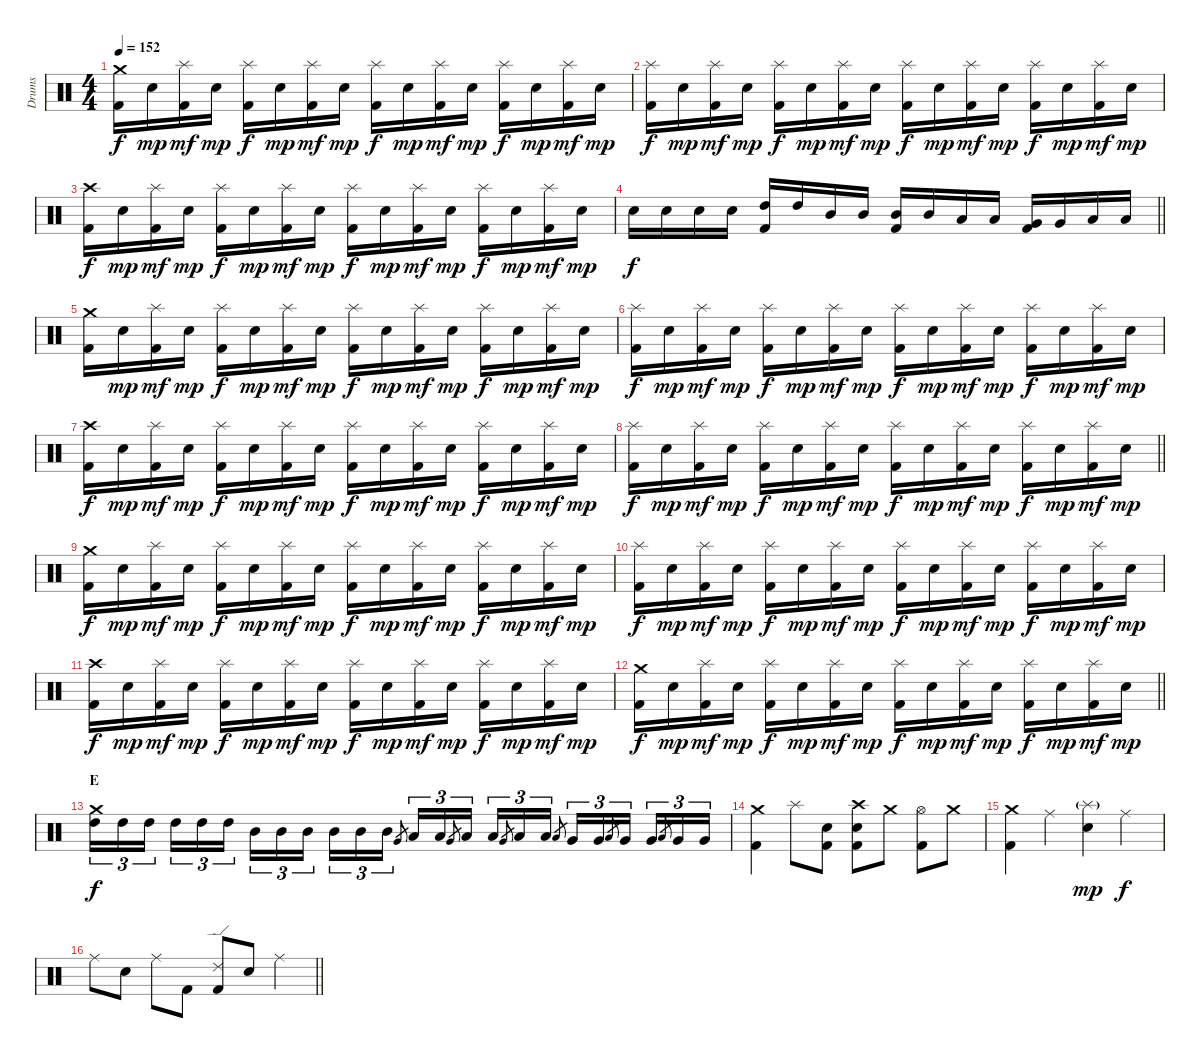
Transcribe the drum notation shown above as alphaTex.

\track ("Drums" "Drums") {instrument percussion}
\staff {score}
\articulation defaults
\ts (4 4)
\section ("" "")
\tempo 152
\clef neutral
\ks c
("Crash medium (hit)" "Kick (hit) 2").16{dy f} "Electric Snare (hit)".16{dy mp} ("Splash (hit)" "Kick (hit) 2").16{dy mf} "Electric Snare (hit)".16{dy mp} ("Splash (hit)" "Kick (hit) 2").16{dy f} "Electric Snare (hit)".16{dy mp} ("Splash (hit)" "Kick (hit) 2").16{dy mf} "Electric Snare (hit)".16{dy mp} ("Splash (hit)" "Kick (hit) 2").16{dy f} "Electric Snare (hit)".16{dy mp} ("Splash (hit)" "Kick (hit) 2").16{dy mf} "Electric Snare (hit)".16{dy mp} ("Splash (hit)" "Kick (hit) 2").16{dy f} "Electric Snare (hit)".16{dy mp} ("Splash (hit)" "Kick (hit) 2").16{dy mf} "Electric Snare (hit)".16{dy mp} |
("Splash (hit)" "Kick (hit) 2").16{dy f} "Electric Snare (hit)".16{dy mp} ("Splash (hit)" "Kick (hit) 2").16{dy mf} "Electric Snare (hit)".16{dy mp} ("Splash (hit)" "Kick (hit) 2").16{dy f} "Electric Snare (hit)".16{dy mp} ("Splash (hit)" "Kick (hit) 2").16{dy mf} "Electric Snare (hit)".16{dy mp} ("Splash (hit)" "Kick (hit) 2").16{dy f} "Electric Snare (hit)".16{dy mp} ("Splash (hit)" "Kick (hit) 2").16{dy mf} "Electric Snare (hit)".16{dy mp} ("Splash (hit)" "Kick (hit) 2").16{dy f} "Electric Snare (hit)".16{dy mp} ("Splash (hit)" "Kick (hit) 2").16{dy mf} "Electric Snare (hit)".16{dy mp} |
("Crash high (hit)" "Kick (hit) 2").16{dy f} "Electric Snare (hit)".16{dy mp} ("Splash (hit)" "Kick (hit) 2").16{dy mf} "Electric Snare (hit)".16{dy mp} ("Splash (hit)" "Kick (hit) 2").16{dy f} "Electric Snare (hit)".16{dy mp} ("Splash (hit)" "Kick (hit) 2").16{dy mf} "Electric Snare (hit)".16{dy mp} ("Splash (hit)" "Kick (hit) 2").16{dy f} "Electric Snare (hit)".16{dy mp} ("Splash (hit)" "Kick (hit) 2").16{dy mf} "Electric Snare (hit)".16{dy mp} ("Splash (hit)" "Kick (hit) 2").16{dy f} "Electric Snare (hit)".16{dy mp} ("Splash (hit)" "Kick (hit) 2").16{dy mf} "Electric Snare (hit)".16{dy mp} |
\barLineRight lightlight "Electric Snare (hit)".16{dy f} "Electric Snare (hit)".16 "Electric Snare (hit)".16 "Electric Snare (hit)".16
("High Tom (hit)" "Kick (hit) 2").16 "High Tom (hit)".16 "Mid Tom (hit)".16 "Mid Tom (hit)".16 ("Mid Tom (hit)" "Kick (hit) 2").16 "Mid Tom (hit)".16 "Low Tom (hit)".16 "Low Tom (hit)".16 ("Very Low Tom (hit)" "Kick (hit) 2").16 "Very Low Tom (hit)".16 "Low Floor Tom (hit)".16 "Low Floor Tom (hit)".16 |
\section ("" "")
("Crash medium (hit)" "Kick (hit) 2").16 "Electric Snare (hit)".16{dy mp} ("Splash (hit)" "Kick (hit) 2").16{dy mf} "Electric Snare (hit)".16{dy mp} ("Splash (hit)" "Kick (hit) 2").16{dy f} "Electric Snare (hit)".16{dy mp} ("Splash (hit)" "Kick (hit) 2").16{dy mf} "Electric Snare (hit)".16{dy mp} ("Splash (hit)" "Kick (hit) 2").16{dy f} "Electric Snare (hit)".16{dy mp} ("Splash (hit)" "Kick (hit) 2").16{dy mf} "Electric Snare (hit)".16{dy mp} ("Splash (hit)" "Kick (hit) 2").16{dy f} "Electric Snare (hit)".16{dy mp} ("Splash (hit)" "Kick (hit) 2").16{dy mf} "Electric Snare (hit)".16{dy mp} |
("Splash (hit)" "Kick (hit) 2").16{dy f} "Electric Snare (hit)".16{dy mp} ("Splash (hit)" "Kick (hit) 2").16{dy mf} "Electric Snare (hit)".16{dy mp} ("Splash (hit)" "Kick (hit) 2").16{dy f} "Electric Snare (hit)".16{dy mp} ("Splash (hit)" "Kick (hit) 2").16{dy mf} "Electric Snare (hit)".16{dy mp} ("Splash (hit)" "Kick (hit) 2").16{dy f} "Electric Snare (hit)".16{dy mp} ("Splash (hit)" "Kick (hit) 2").16{dy mf} "Electric Snare (hit)".16{dy mp} ("Splash (hit)" "Kick (hit) 2").16{dy f} "Electric Snare (hit)".16{dy mp} ("Splash (hit)" "Kick (hit) 2").16{dy mf} "Electric Snare (hit)".16{dy mp} |
("Crash high (hit)" "Kick (hit) 2").16{dy f} "Electric Snare (hit)".16{dy mp} ("Splash (hit)" "Kick (hit) 2").16{dy mf} "Electric Snare (hit)".16{dy mp} ("Splash (hit)" "Kick (hit) 2").16{dy f} "Electric Snare (hit)".16{dy mp} ("Splash (hit)" "Kick (hit) 2").16{dy mf} "Electric Snare (hit)".16{dy mp} ("Splash (hit)" "Kick (hit) 2").16{dy f} "Electric Snare (hit)".16{dy mp} ("Splash (hit)" "Kick (hit) 2").16{dy mf} "Electric Snare (hit)".16{dy mp} ("Splash (hit)" "Kick (hit) 2").16{dy f} "Electric Snare (hit)".16{dy mp} ("Splash (hit)" "Kick (hit) 2").16{dy mf} "Electric Snare (hit)".16{dy mp} |
\barLineRight lightlight
("Splash (hit)" "Kick (hit) 2").16{dy f} "Electric Snare (hit)".16{dy mp} ("Splash (hit)" "Kick (hit) 2").16{dy mf} "Electric Snare (hit)".16{dy mp} ("Splash (hit)" "Kick (hit) 2").16{dy f} "Electric Snare (hit)".16{dy mp} ("Splash (hit)" "Kick (hit) 2").16{dy mf} "Electric Snare (hit)".16{dy mp} ("Splash (hit)" "Kick (hit) 2").16{dy f} "Electric Snare (hit)".16{dy mp} ("Splash (hit)" "Kick (hit) 2").16{dy mf} "Electric Snare (hit)".16{dy mp} ("Splash (hit)" "Kick (hit) 2").16{dy f} "Electric Snare (hit)".16{dy mp} ("Splash (hit)" "Kick (hit) 2").16{dy mf} "Electric Snare (hit)".16{dy mp} |
\section ("" "")
("Crash medium (hit)" "Kick (hit) 2").16{dy f} "Electric Snare (hit)".16{dy mp} ("Splash (hit)" "Kick (hit) 2").16{dy mf} "Electric Snare (hit)".16{dy mp} ("Splash (hit)" "Kick (hit) 2").16{dy f} "Electric Snare (hit)".16{dy mp} ("Splash (hit)" "Kick (hit) 2").16{dy mf} "Electric Snare (hit)".16{dy mp} ("Splash (hit)" "Kick (hit) 2").16{dy f} "Electric Snare (hit)".16{dy mp} ("Splash (hit)" "Kick (hit) 2").16{dy mf} "Electric Snare (hit)".16{dy mp} ("Splash (hit)" "Kick (hit) 2").16{dy f} "Electric Snare (hit)".16{dy mp} ("Splash (hit)" "Kick (hit) 2").16{dy mf} "Electric Snare (hit)".16{dy mp} |
("Splash (hit)" "Kick (hit) 2").16{dy f} "Electric Snare (hit)".16{dy mp} ("Splash (hit)" "Kick (hit) 2").16{dy mf} "Electric Snare (hit)".16{dy mp} ("Splash (hit)" "Kick (hit) 2").16{dy f} "Electric Snare (hit)".16{dy mp} ("Splash (hit)" "Kick (hit) 2").16{dy mf} "Electric Snare (hit)".16{dy mp} ("Splash (hit)" "Kick (hit) 2").16{dy f} "Electric Snare (hit)".16{dy mp} ("Splash (hit)" "Kick (hit) 2").16{dy mf} "Electric Snare (hit)".16{dy mp} ("Splash (hit)" "Kick (hit) 2").16{dy f} "Electric Snare (hit)".16{dy mp} ("Splash (hit)" "Kick (hit) 2").16{dy mf} "Electric Snare (hit)".16{dy mp} |
("Crash high (hit)" "Kick (hit) 2").16{dy f} "Electric Snare (hit)".16{dy mp} ("Splash (hit)" "Kick (hit) 2").16{dy mf} "Electric Snare (hit)".16{dy mp} ("Splash (hit)" "Kick (hit) 2").16{dy f} "Electric Snare (hit)".16{dy mp} ("Splash (hit)" "Kick (hit) 2").16{dy mf} "Electric Snare (hit)".16{dy mp} ("Splash (hit)" "Kick (hit) 2").16{dy f} "Electric Snare (hit)".16{dy mp} ("Splash (hit)" "Kick (hit) 2").16{dy mf} "Electric Snare (hit)".16{dy mp} ("Splash (hit)" "Kick (hit) 2").16{dy f} "Electric Snare (hit)".16{dy mp} ("Splash (hit)" "Kick (hit) 2").16{dy mf} "Electric Snare (hit)".16{dy mp} |
\barLineRight lightlight
("Crash medium (hit)" "Kick (hit) 2").16{dy f} "Electric Snare (hit)".16{dy mp} ("Splash (hit)" "Kick (hit) 2").16{dy mf} "Electric Snare (hit)".16{dy mp} ("Splash (hit)" "Kick (hit) 2").16{dy f} "Electric Snare (hit)".16{dy mp} ("Splash (hit)" "Kick (hit) 2").16{dy mf} "Electric Snare (hit)".16{dy mp} ("Splash (hit)" "Kick (hit) 2").16{dy f} "Electric Snare (hit)".16{dy mp} ("Splash (hit)" "Kick (hit) 2").16{dy mf} "Electric Snare (hit)".16{dy mp} ("Splash (hit)" "Kick (hit) 2").16{dy f} "Electric Snare (hit)".16{dy mp} ("Splash (hit)" "Kick (hit) 2").16{dy mf} "Electric Snare (hit)".16{dy mp} |
\section ("" "E")
("Crash medium (hit)" "High Tom (hit)").16{tu (3 2) dy f} "High Tom (hit)".16{tu (3 2)} "High Tom (hit)".16{tu (3 2) beam splitsecondary} "High Tom (hit)".16{tu (3 2)} "High Tom (hit)".16{tu (3 2)} "High Tom (hit)".16{tu (3 2)} "Mid Tom (hit)".16{tu (3 2)} "Mid Tom (hit)".16{tu (3 2)} "Mid Tom (hit)".16{tu (3 2) beam splitsecondary} "Mid Tom (hit)".16{tu (3 2)} "Mid Tom (hit)".16{tu (3 2)} "Mid Tom (hit)".16{tu (3 2)} "Very Low Tom (hit)".8{gr} "Low Tom (hit)".16{tu (3 2)} "Low Tom (hit)".16{tu (3 2)} "Very Low Tom (hit)".8{gr} "Low Tom (hit)".16{tu (3 2) beam splitsecondary} "Low Tom (hit)".16{tu (3 2)} "Very Low Tom (hit)".8{gr} "Low Tom (hit)".16{tu (3 2)} "Low Tom (hit)".16{tu (3 2)} "Low Floor Tom (hit)".8{gr} "Very Low Tom (hit)".16{tu (3 2)} "Very Low Tom (hit)".16{tu (3 2)} "Low Floor Tom (hit)".8{gr} "Very Low Tom (hit)".16{tu (3 2) beam splitsecondary} "Very Low Tom (hit)".16{tu (3 2)} "Low Floor Tom (hit)".8{gr} "Very Low Tom (hit)".16{tu (3 2)} "Very Low Tom (hit)".16{tu (3 2)} |
("Crash medium (hit)" "Kick (hit) 2").4 "Splash (hit)".8 ("Electric Snare (hit)" "Kick (hit) 2").8 ("Crash high (hit)" "Electric Snare (hit)" "Kick (hit) 2").8 "Crash medium (hit)".8 ("Hi-Hat (open)" "Kick (hit) 2").8 "Crash medium (hit)".8 |
("Crash medium (hit)" "Kick (hit) 2").4 "Ride (middle)".4 ("Splash (hit)"{g} "Electric Snare (hit)").4{dy mp} "Ride (middle)".4{dy f} |
\barLineRight lightlight "Ride (middle)".8 "Electric Snare (hit)".8 "Ride (middle)".8 "Kick (hit) 2".8
("Ride (edge) 2" "Kick (hit) 2").8 "Electric Snare (hit)".8 "Ride (middle)".4
